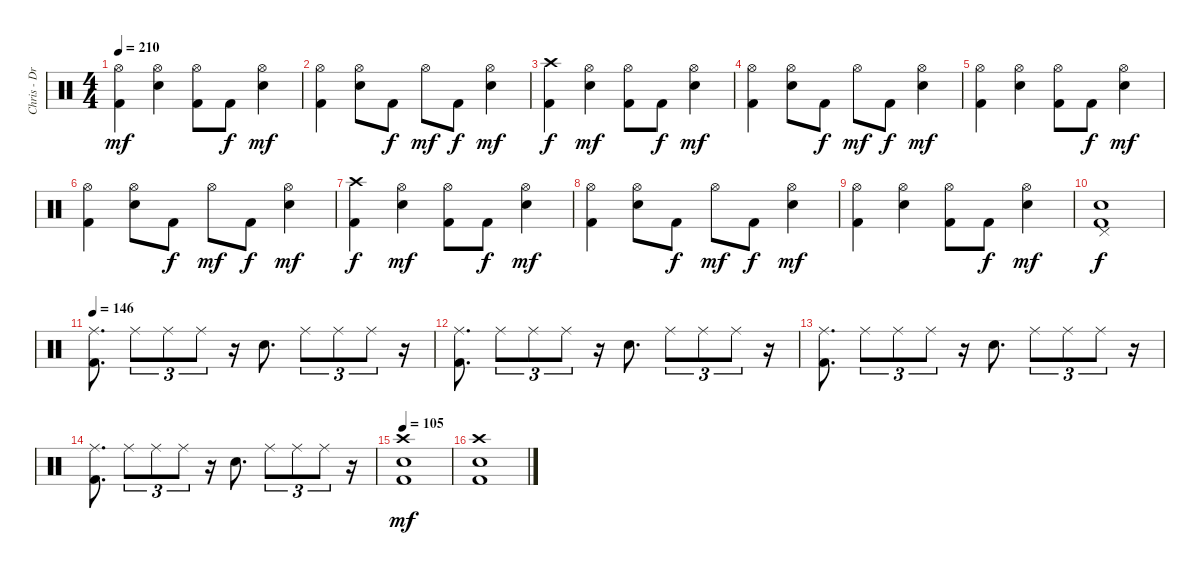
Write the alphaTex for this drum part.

\track ("Chris - Drums" "Chris - Dr") {instrument percussion}
\staff {score}
\articulation defaults
\ts (4 4)
\tempo 210
\clef neutral
\ks c
("Hi-Hat (open)" "Kick (hit) 2").4{dy mf} ("Hi-Hat (open)" "Electric Snare (hit)").4 ("Hi-Hat (open)" "Kick (hit) 2").8 "Kick (hit) 2".8{dy f} ("Hi-Hat (open)" "Electric Snare (hit)").4{dy mf} |
("Hi-Hat (open)" "Kick (hit) 2").4 ("Hi-Hat (open)" "Electric Snare (hit)").8 "Kick (hit) 2".8{dy f} "Hi-Hat (open)".8{dy mf} "Kick (hit) 2".8{dy f} ("Hi-Hat (open)" "Electric Snare (hit)").4{dy mf} |
("Crash high (hit)" "Kick (hit) 2").4{dy f} ("Hi-Hat (open)" "Electric Snare (hit)").4{dy mf} ("Hi-Hat (open)" "Kick (hit) 2").8 "Kick (hit) 2".8{dy f} ("Hi-Hat (open)" "Electric Snare (hit)").4{dy mf} |
("Hi-Hat (open)" "Kick (hit) 2").4 ("Hi-Hat (open)" "Electric Snare (hit)").8 "Kick (hit) 2".8{dy f} "Hi-Hat (open)".8{dy mf} "Kick (hit) 2".8{dy f} ("Hi-Hat (open)" "Electric Snare (hit)").4{dy mf} |
("Hi-Hat (open)" "Kick (hit) 2").4 ("Hi-Hat (open)" "Electric Snare (hit)").4 ("Hi-Hat (open)" "Kick (hit) 2").8 "Kick (hit) 2".8{dy f} ("Hi-Hat (open)" "Electric Snare (hit)").4{dy mf} |
("Hi-Hat (open)" "Kick (hit) 2").4 ("Hi-Hat (open)" "Electric Snare (hit)").8 "Kick (hit) 2".8{dy f} "Hi-Hat (open)".8{dy mf} "Kick (hit) 2".8{dy f} ("Hi-Hat (open)" "Electric Snare (hit)").4{dy mf} |
("Crash high (hit)" "Kick (hit) 2").4{dy f} ("Hi-Hat (open)" "Electric Snare (hit)").4{dy mf} ("Hi-Hat (open)" "Kick (hit) 2").8 "Kick (hit) 2".8{dy f} ("Hi-Hat (open)" "Electric Snare (hit)").4{dy mf} |
("Hi-Hat (open)" "Kick (hit) 2").4 ("Hi-Hat (open)" "Electric Snare (hit)").8 "Kick (hit) 2".8{dy f} "Hi-Hat (open)".8{dy mf} "Kick (hit) 2".8{dy f} ("Hi-Hat (open)" "Electric Snare (hit)").4{dy mf} |
("Hi-Hat (open)" "Kick (hit) 2").4 ("Hi-Hat (open)" "Electric Snare (hit)").4 ("Hi-Hat (open)" "Kick (hit) 2").8 "Kick (hit) 2".8{dy f} ("Hi-Hat (open)" "Electric Snare (hit)").4{dy mf} |
("Pedal Hi-Hat (hit)" "Electric Snare (hit)" "Kick (hit) 2").1{dy f} |
\tempo 146
("Ride (middle)" "Kick (hit) 2").8{d} "Ride (middle)".8{tu (3 2)} "Ride (middle)".8{tu (3 2)} "Ride (middle)".8{tu (3 2)} r.16 "Electric Snare (hit)".8{d} "Ride (middle)".8{tu (3 2)} "Ride (middle)".8{tu (3 2)} "Ride (middle)".8{tu (3 2)} r.16 |
("Ride (middle)" "Kick (hit) 2").8{d} "Ride (middle)".8{tu (3 2)} "Ride (middle)".8{tu (3 2)} "Ride (middle)".8{tu (3 2)} r.16 "Electric Snare (hit)".8{d} "Ride (middle)".8{tu (3 2)} "Ride (middle)".8{tu (3 2)} "Ride (middle)".8{tu (3 2)} r.16 |
("Ride (middle)" "Kick (hit) 2").8{d} "Ride (middle)".8{tu (3 2)} "Ride (middle)".8{tu (3 2)} "Ride (middle)".8{tu (3 2)} r.16 "Electric Snare (hit)".8{d} "Ride (middle)".8{tu (3 2)} "Ride (middle)".8{tu (3 2)} "Ride (middle)".8{tu (3 2)} r.16 |
("Ride (middle)" "Kick (hit) 2").8{d} "Ride (middle)".8{tu (3 2)} "Ride (middle)".8{tu (3 2)} "Ride (middle)".8{tu (3 2)} r.16 "Electric Snare (hit)".8{d} "Ride (middle)".8{tu (3 2)} "Ride (middle)".8{tu (3 2)} "Ride (middle)".8{tu (3 2)} r.16 |
\tempo 105
("Crash high (hit)" "Electric Snare (hit)" "Kick (hit) 2").1{dy mf} |
("Crash high (hit)" "Electric Snare (hit)" "Kick (hit) 2").1
